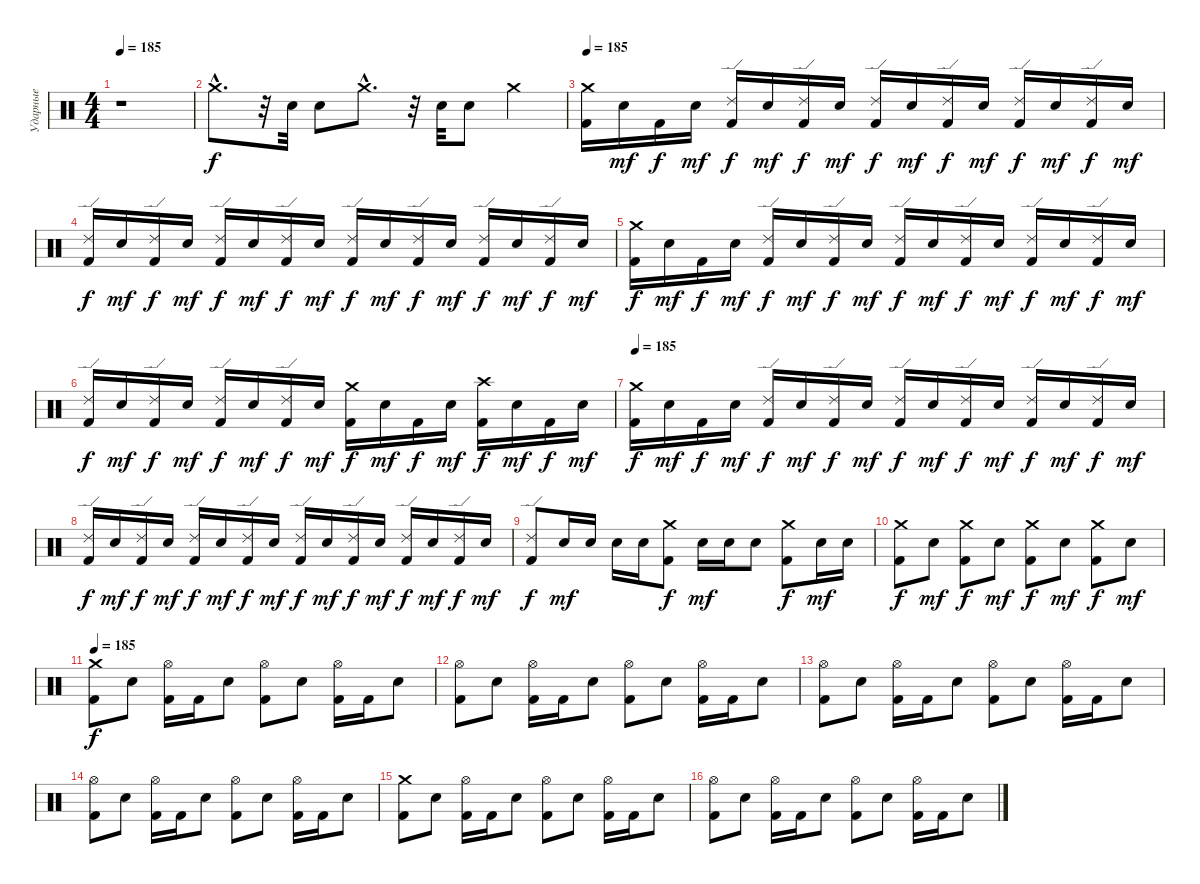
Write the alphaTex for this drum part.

\track ("Ударные" "Ударные") {instrument percussion}
\staff {score}
\articulation defaults
\ts (4 4)
\tempo 185
\clef neutral
\ks c
r.1{dy f} |
"Crash medium (hit)"{hac}.8{d} r.32 "Electric Snare (hit)".32 "Electric Snare (hit)".8 "Crash medium (hit)"{hac}.8{d} r.32 "Electric Snare (hit)".32 "Electric Snare (hit)".8 "Crash medium (hit)".4 |
\tempo 185
("Crash medium (hit)" "Kick (hit) 2").16 "Electric Snare (hit)".16{dy mf} "Kick (hit) 2".16{dy f} "Electric Snare (hit)".16{dy mf} ("Ride (edge) 2" "Kick (hit) 2").16{dy f} "Electric Snare (hit)".16{dy mf} ("Ride (edge) 2" "Kick (hit) 2").16{dy f} "Electric Snare (hit)".16{dy mf} ("Ride (edge) 2" "Kick (hit) 2").16{dy f} "Electric Snare (hit)".16{dy mf} ("Ride (edge) 2" "Kick (hit) 2").16{dy f} "Electric Snare (hit)".16{dy mf} ("Ride (edge) 2" "Kick (hit) 2").16{dy f} "Electric Snare (hit)".16{dy mf} ("Ride (edge) 2" "Kick (hit) 2").16{dy f} "Electric Snare (hit)".16{dy mf} |
("Ride (edge) 2" "Kick (hit) 2").16{dy f} "Electric Snare (hit)".16{dy mf} ("Ride (edge) 2" "Kick (hit) 2").16{dy f} "Electric Snare (hit)".16{dy mf} ("Ride (edge) 2" "Kick (hit) 2").16{dy f} "Electric Snare (hit)".16{dy mf} ("Ride (edge) 2" "Kick (hit) 2").16{dy f} "Electric Snare (hit)".16{dy mf} ("Ride (edge) 2" "Kick (hit) 2").16{dy f} "Electric Snare (hit)".16{dy mf} ("Ride (edge) 2" "Kick (hit) 2").16{dy f} "Electric Snare (hit)".16{dy mf} ("Ride (edge) 2" "Kick (hit) 2").16{dy f} "Electric Snare (hit)".16{dy mf} ("Ride (edge) 2" "Kick (hit) 2").16{dy f} "Electric Snare (hit)".16{dy mf} |
("Crash medium (hit)" "Kick (hit) 2").16{dy f} "Electric Snare (hit)".16{dy mf} "Kick (hit) 2".16{dy f} "Electric Snare (hit)".16{dy mf} ("Ride (edge) 2" "Kick (hit) 2").16{dy f} "Electric Snare (hit)".16{dy mf} ("Ride (edge) 2" "Kick (hit) 2").16{dy f} "Electric Snare (hit)".16{dy mf} ("Ride (edge) 2" "Kick (hit) 2").16{dy f} "Electric Snare (hit)".16{dy mf} ("Ride (edge) 2" "Kick (hit) 2").16{dy f} "Electric Snare (hit)".16{dy mf} ("Ride (edge) 2" "Kick (hit) 2").16{dy f} "Electric Snare (hit)".16{dy mf} ("Ride (edge) 2" "Kick (hit) 2").16{dy f} "Electric Snare (hit)".16{dy mf} |
("Ride (edge) 2" "Kick (hit) 2").16{dy f} "Electric Snare (hit)".16{dy mf} ("Ride (edge) 2" "Kick (hit) 2").16{dy f} "Electric Snare (hit)".16{dy mf} ("Ride (edge) 2" "Kick (hit) 2").16{dy f} "Electric Snare (hit)".16{dy mf} ("Ride (edge) 2" "Kick (hit) 2").16{dy f} "Electric Snare (hit)".16{dy mf} ("Crash medium (hit)" "Kick (hit) 2").16{dy f} "Electric Snare (hit)".16{dy mf} "Kick (hit) 2".16{dy f} "Electric Snare (hit)".16{dy mf} ("Crash high (hit)" "Kick (hit) 2").16{dy f} "Electric Snare (hit)".16{dy mf} "Kick (hit) 2".16{dy f} "Electric Snare (hit)".16{dy mf} |
\tempo 185
("Crash medium (hit)" "Kick (hit) 2").16{dy f} "Electric Snare (hit)".16{dy mf} "Kick (hit) 2".16{dy f} "Electric Snare (hit)".16{dy mf} ("Ride (edge) 2" "Kick (hit) 2").16{dy f} "Electric Snare (hit)".16{dy mf} ("Ride (edge) 2" "Kick (hit) 2").16{dy f} "Electric Snare (hit)".16{dy mf} ("Ride (edge) 2" "Kick (hit) 2").16{dy f} "Electric Snare (hit)".16{dy mf} ("Ride (edge) 2" "Kick (hit) 2").16{dy f} "Electric Snare (hit)".16{dy mf} ("Ride (edge) 2" "Kick (hit) 2").16{dy f} "Electric Snare (hit)".16{dy mf} ("Ride (edge) 2" "Kick (hit) 2").16{dy f} "Electric Snare (hit)".16{dy mf} |
("Ride (edge) 2" "Kick (hit) 2").16{dy f} "Electric Snare (hit)".16{dy mf} ("Ride (edge) 2" "Kick (hit) 2").16{dy f} "Electric Snare (hit)".16{dy mf} ("Ride (edge) 2" "Kick (hit) 2").16{dy f} "Electric Snare (hit)".16{dy mf} ("Ride (edge) 2" "Kick (hit) 2").16{dy f} "Electric Snare (hit)".16{dy mf} ("Ride (edge) 2" "Kick (hit) 2").16{dy f} "Electric Snare (hit)".16{dy mf} ("Ride (edge) 2" "Kick (hit) 2").16{dy f} "Electric Snare (hit)".16{dy mf} ("Ride (edge) 2" "Kick (hit) 2").16{dy f} "Electric Snare (hit)".16{dy mf} ("Ride (edge) 2" "Kick (hit) 2").16{dy f} "Electric Snare (hit)".16{dy mf} |
("Ride (edge) 2" "Kick (hit) 2").8{dy f} "Electric Snare (hit)".16{dy mf} "Electric Snare (hit)".16 "Electric Snare (hit)".16 "Electric Snare (hit)".16 ("Crash medium (hit)" "Kick (hit) 2").8{dy f} "Electric Snare (hit)".16{dy mf} "Electric Snare (hit)".16 "Electric Snare (hit)".8 ("Crash medium (hit)" "Kick (hit) 2").8{dy f} "Electric Snare (hit)".16{dy mf} "Electric Snare (hit)".16 |
("Crash medium (hit)" "Kick (hit) 2").8{dy f} "Electric Snare (hit)".8{dy mf} ("Crash medium (hit)" "Kick (hit) 2").8{dy f} "Electric Snare (hit)".8{dy mf} ("Crash medium (hit)" "Kick (hit) 2").8{dy f} "Electric Snare (hit)".8{dy mf} ("Crash medium (hit)" "Kick (hit) 2").8{dy f} "Electric Snare (hit)".8{dy mf} |
\tempo 185
("Crash medium (hit)" "Kick (hit) 2").8{dy f} "Electric Snare (hit)".8 ("Hi-Hat (open)" "Kick (hit) 2").16 "Kick (hit) 2".16 "Electric Snare (hit)".8 ("Hi-Hat (open)" "Kick (hit) 2").8 "Electric Snare (hit)".8 ("Hi-Hat (open)" "Kick (hit) 2").16 "Kick (hit) 2".16 "Electric Snare (hit)".8 |
("Hi-Hat (open)" "Kick (hit) 2").8 "Electric Snare (hit)".8 ("Hi-Hat (open)" "Kick (hit) 2").16 "Kick (hit) 2".16 "Electric Snare (hit)".8 ("Hi-Hat (open)" "Kick (hit) 2").8 "Electric Snare (hit)".8 ("Hi-Hat (open)" "Kick (hit) 2").16 "Kick (hit) 2".16 "Electric Snare (hit)".8 |
("Hi-Hat (open)" "Kick (hit) 2").8 "Electric Snare (hit)".8 ("Hi-Hat (open)" "Kick (hit) 2").16 "Kick (hit) 2".16 "Electric Snare (hit)".8 ("Hi-Hat (open)" "Kick (hit) 2").8 "Electric Snare (hit)".8 ("Hi-Hat (open)" "Kick (hit) 2").16 "Kick (hit) 2".16 "Electric Snare (hit)".8 |
("Hi-Hat (open)" "Kick (hit) 2").8 "Electric Snare (hit)".8 ("Hi-Hat (open)" "Kick (hit) 2").16 "Kick (hit) 2".16 "Electric Snare (hit)".8 ("Hi-Hat (open)" "Kick (hit) 2").8 "Electric Snare (hit)".8 ("Hi-Hat (open)" "Kick (hit) 2").16 "Kick (hit) 2".16 "Electric Snare (hit)".8 |
("Crash medium (hit)" "Kick (hit) 2").8 "Electric Snare (hit)".8 ("Hi-Hat (open)" "Kick (hit) 2").16 "Kick (hit) 2".16 "Electric Snare (hit)".8 ("Hi-Hat (open)" "Kick (hit) 2").8 "Electric Snare (hit)".8 ("Hi-Hat (open)" "Kick (hit) 2").16 "Kick (hit) 2".16 "Electric Snare (hit)".8 |
("Hi-Hat (open)" "Kick (hit) 2").8 "Electric Snare (hit)".8 ("Hi-Hat (open)" "Kick (hit) 2").16 "Kick (hit) 2".16 "Electric Snare (hit)".8 ("Hi-Hat (open)" "Kick (hit) 2").8 "Electric Snare (hit)".8 ("Hi-Hat (open)" "Kick (hit) 2").16 "Kick (hit) 2".16 "Electric Snare (hit)".8
